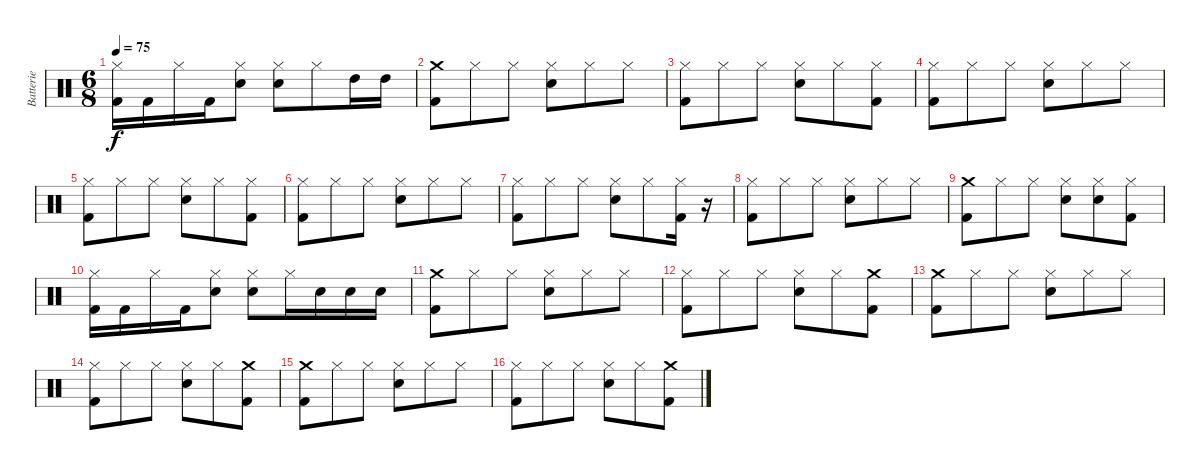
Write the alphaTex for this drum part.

\track ("Batterie" "Batterie") {instrument percussion}
\staff {score}
\articulation defaults
\ts (6 8)
\tempo 75
\clef neutral
\ks c
("Kick (hit) 2" "Hi-Hat (closed)").16{dy f} "Kick (hit) 2".16 "Hi-Hat (closed)".16 "Kick (hit) 2".16 ("Snare (hit) 2" "Hi-Hat (closed)").8 ("Snare (hit) 2" "Hi-Hat (closed)").8 "Hi-Hat (closed)".8 "High Tom (hit)".16 "High Tom (hit)".16 |
("Kick (hit) 2" "Crash medium (hit)").8 "Hi-Hat (closed)".8 "Hi-Hat (closed)".8 ("Snare (hit) 2" "Hi-Hat (closed)").8 "Hi-Hat (closed)".8 "Hi-Hat (closed)".8 |
("Kick (hit) 2" "Hi-Hat (closed)").8 "Hi-Hat (closed)".8 "Hi-Hat (closed)".8 ("Snare (hit) 2" "Hi-Hat (closed)").8 "Hi-Hat (closed)".8 ("Kick (hit) 2" "Hi-Hat (closed)").8 |
("Kick (hit) 2" "Hi-Hat (closed)").8 "Hi-Hat (closed)".8 "Hi-Hat (closed)".8 ("Snare (hit) 2" "Hi-Hat (closed)").8 "Hi-Hat (closed)".8 "Hi-Hat (closed)".8 |
("Kick (hit) 2" "Hi-Hat (closed)").8 "Hi-Hat (closed)".8 "Hi-Hat (closed)".8 ("Snare (hit) 2" "Hi-Hat (closed)").8 "Hi-Hat (closed)".8 ("Kick (hit) 2" "Hi-Hat (closed)").8 |
("Kick (hit) 2" "Hi-Hat (closed)").8 "Hi-Hat (closed)".8 "Hi-Hat (closed)".8 ("Snare (hit) 2" "Hi-Hat (closed)").8 "Hi-Hat (closed)".8 "Hi-Hat (closed)".8 |
("Kick (hit) 2" "Hi-Hat (closed)").8 "Hi-Hat (closed)".8 "Hi-Hat (closed)".8 ("Snare (hit) 2" "Hi-Hat (closed)").8 "Hi-Hat (closed)".8 ("Kick (hit) 2" "Hi-Hat (closed)").16 r.16 |
("Kick (hit) 2" "Hi-Hat (closed)").8 "Hi-Hat (closed)".8 "Hi-Hat (closed)".8 ("Snare (hit) 2" "Hi-Hat (closed)").8 "Hi-Hat (closed)".8 "Hi-Hat (closed)".8 |
("Kick (hit) 2" "Crash medium (hit)").8 "Hi-Hat (closed)".8 "Hi-Hat (closed)".8 ("Snare (hit) 2" "Hi-Hat (closed)").8 ("Snare (hit) 2" "Hi-Hat (closed)").8 ("Kick (hit) 2" "Hi-Hat (closed)").8 |
("Kick (hit) 2" "Hi-Hat (closed)").16 "Kick (hit) 2".16 "Hi-Hat (closed)".16 "Kick (hit) 2".16 ("Snare (hit) 2" "Hi-Hat (closed)").8 ("Snare (hit) 2" "Hi-Hat (closed)").8 "Hi-Hat (closed)".16 "Snare (hit) 2".16 "Snare (hit) 2".16 "Snare (hit) 2".16 |
("Kick (hit) 2" "Crash medium (hit)").8 "Hi-Hat (closed)".8 "Hi-Hat (closed)".8 ("Snare (hit) 2" "Hi-Hat (closed)").8 "Hi-Hat (closed)".8 "Hi-Hat (closed)".8 |
("Kick (hit) 2" "Hi-Hat (closed)").8 "Hi-Hat (closed)".8 "Hi-Hat (closed)".8 ("Snare (hit) 2" "Hi-Hat (closed)").8 "Hi-Hat (closed)".8 ("Kick (hit) 2" "Crash medium (hit)").8 |
("Kick (hit) 2" "Crash medium (hit)").8 "Hi-Hat (closed)".8 "Hi-Hat (closed)".8 ("Snare (hit) 2" "Hi-Hat (closed)").8 "Hi-Hat (closed)".8 "Hi-Hat (closed)".8 |
("Kick (hit) 2" "Hi-Hat (closed)").8 "Hi-Hat (closed)".8 "Hi-Hat (closed)".8 ("Snare (hit) 2" "Hi-Hat (closed)").8 "Hi-Hat (closed)".8 ("Kick (hit) 2" "Crash medium (hit)").8 |
("Crash medium (hit)" "Kick (hit) 2").8 "Hi-Hat (closed)".8 "Hi-Hat (closed)".8 ("Snare (hit) 2" "Hi-Hat (closed)").8 "Hi-Hat (closed)".8 "Hi-Hat (closed)".8 |
("Hi-Hat (closed)" "Kick (hit) 2").8 "Hi-Hat (closed)".8 "Hi-Hat (closed)".8 ("Snare (hit) 2" "Hi-Hat (closed)").8 "Hi-Hat (closed)".8 ("Crash medium (hit)" "Kick (hit) 2").8
